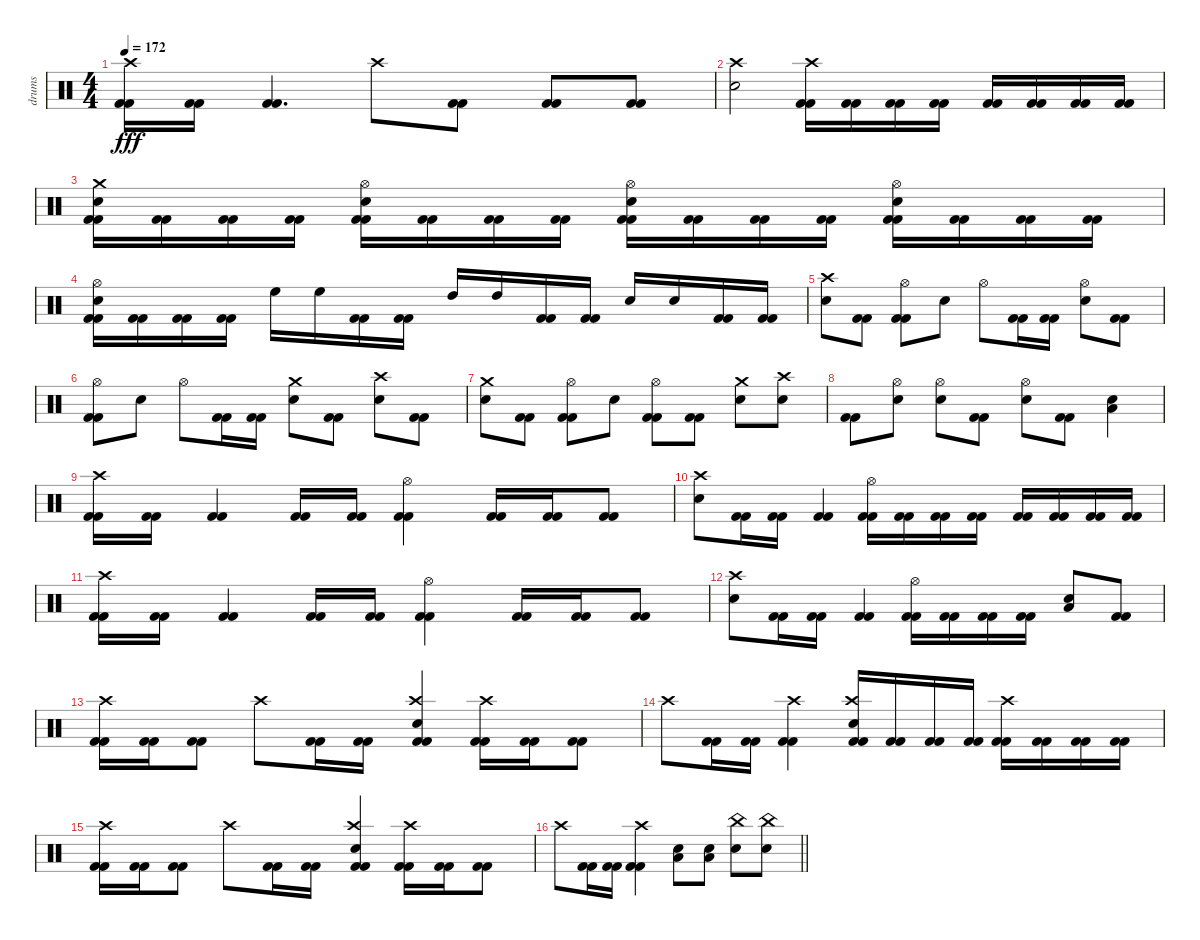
\track ("drums" "drums") {instrument percussion}
\staff {score}
\articulation defaults
\ts (4 4)
\tempo 172
\clef neutral
\ks c
("Kick (hit) 2" "Kick (hit) 2" "Crash high (hit)").16{dy fff} ("Kick (hit) 2" "Kick (hit) 2").16 ("Kick (hit) 2" "Kick (hit) 2").4{d} "Crash high (hit)".8 ("Kick (hit) 2" "Kick (hit) 2").8 ("Kick (hit) 2" "Kick (hit) 2").8 ("Kick (hit) 2" "Kick (hit) 2").8 |
("Electric Snare (hit)" "Crash high (hit)").2 ("Kick (hit) 2" "Kick (hit) 2" "Crash high (hit)").16 ("Kick (hit) 2" "Kick (hit) 2").16 ("Kick (hit) 2" "Kick (hit) 2").16 ("Kick (hit) 2" "Kick (hit) 2").16 ("Kick (hit) 2" "Kick (hit) 2").16 ("Kick (hit) 2" "Kick (hit) 2").16 ("Kick (hit) 2" "Kick (hit) 2").16 ("Kick (hit) 2" "Kick (hit) 2").16 |
("Kick (hit) 2" "Kick (hit) 2" "Electric Snare (hit)" "Crash medium (hit)").16 ("Kick (hit) 2" "Kick (hit) 2").16 ("Kick (hit) 2" "Kick (hit) 2").16 ("Kick (hit) 2" "Kick (hit) 2").16 ("Kick (hit) 2" "Kick (hit) 2" "Electric Snare (hit)" "Hi-Hat (open)").16 ("Kick (hit) 2" "Kick (hit) 2").16 ("Kick (hit) 2" "Kick (hit) 2").16 ("Kick (hit) 2" "Kick (hit) 2").16 ("Kick (hit) 2" "Kick (hit) 2" "Electric Snare (hit)" "Hi-Hat (open)").16 ("Kick (hit) 2" "Kick (hit) 2").16 ("Kick (hit) 2" "Kick (hit) 2").16 ("Kick (hit) 2" "Kick (hit) 2").16 ("Kick (hit) 2" "Kick (hit) 2" "Electric Snare (hit)" "Hi-Hat (open)").16 ("Kick (hit) 2" "Kick (hit) 2").16 ("Kick (hit) 2" "Kick (hit) 2").16 ("Kick (hit) 2" "Kick (hit) 2").16 |
("Kick (hit) 2" "Kick (hit) 2" "Electric Snare (hit)" "Hi-Hat (open)").16 ("Kick (hit) 2" "Kick (hit) 2").16 ("Kick (hit) 2" "Kick (hit) 2").16 ("Kick (hit) 2" "Kick (hit) 2").16 "High Floor Tom (hit)".16 "High Floor Tom (hit)".16 ("Kick (hit) 2" "Kick (hit) 2").16 ("Kick (hit) 2" "Kick (hit) 2").16 "High Tom (hit)".16 "High Tom (hit)".16 ("Kick (hit) 2" "Kick (hit) 2").16 ("Kick (hit) 2" "Kick (hit) 2").16 "Electric Snare (hit)".16 "Electric Snare (hit)".16 ("Kick (hit) 2" "Kick (hit) 2").16 ("Kick (hit) 2" "Kick (hit) 2").16 |
("Electric Snare (hit)" "Crash high (hit)").8 ("Kick (hit) 2" "Kick (hit) 2").8 ("Kick (hit) 2" "Kick (hit) 2" "Hi-Hat (open)").8 "Electric Snare (hit)".8 "Hi-Hat (open)".8 ("Kick (hit) 2" "Kick (hit) 2").16 ("Kick (hit) 2" "Kick (hit) 2").16 ("Electric Snare (hit)" "Hi-Hat (open)").8 ("Kick (hit) 2" "Kick (hit) 2").8 |
("Kick (hit) 2" "Kick (hit) 2" "Hi-Hat (open)").8 "Electric Snare (hit)".8 "Hi-Hat (open)".8 ("Kick (hit) 2" "Kick (hit) 2").16 ("Kick (hit) 2" "Kick (hit) 2").16 ("Electric Snare (hit)" "Crash medium (hit)").8 ("Kick (hit) 2" "Kick (hit) 2").8 ("Electric Snare (hit)" "Crash high (hit)").8 ("Kick (hit) 2" "Kick (hit) 2").8 |
("Electric Snare (hit)" "Crash medium (hit)").8 ("Kick (hit) 2" "Kick (hit) 2").8 ("Kick (hit) 2" "Kick (hit) 2" "Hi-Hat (open)").8 "Electric Snare (hit)".8 ("Kick (hit) 2" "Kick (hit) 2" "Hi-Hat (open)").8 ("Kick (hit) 2" "Kick (hit) 2").8 ("Electric Snare (hit)" "Crash medium (hit)").8 ("Electric Snare (hit)" "Crash high (hit)").8 |
("Kick (hit) 2" "Kick (hit) 2").8 ("Electric Snare (hit)" "Hi-Hat (open)").8 ("Electric Snare (hit)" "Hi-Hat (open)").8 ("Kick (hit) 2" "Kick (hit) 2").8 ("Electric Snare (hit)" "Hi-Hat (open)").8 ("Kick (hit) 2" "Kick (hit) 2").8 ("Low Floor Tom (hit)" "Electric Snare (hit)").4 |
("Kick (hit) 2" "Kick (hit) 2" "Crash high (hit)").16 ("Kick (hit) 2" "Kick (hit) 2").16 ("Kick (hit) 2" "Kick (hit) 2").4 ("Kick (hit) 2" "Kick (hit) 2").16 ("Kick (hit) 2" "Kick (hit) 2").16 ("Kick (hit) 2" "Kick (hit) 2" "Hi-Hat (open)").4 ("Kick (hit) 2" "Kick (hit) 2").16 ("Kick (hit) 2" "Kick (hit) 2").16 ("Kick (hit) 2" "Kick (hit) 2").8 |
("Electric Snare (hit)" "Crash high (hit)").8 ("Kick (hit) 2" "Kick (hit) 2").16 ("Kick (hit) 2" "Kick (hit) 2").16 ("Kick (hit) 2" "Kick (hit) 2").4 ("Kick (hit) 2" "Kick (hit) 2" "Hi-Hat (open)").16 ("Kick (hit) 2" "Kick (hit) 2").16 ("Kick (hit) 2" "Kick (hit) 2").16 ("Kick (hit) 2" "Kick (hit) 2").16 ("Kick (hit) 2" "Kick (hit) 2").16 ("Kick (hit) 2" "Kick (hit) 2").16 ("Kick (hit) 2" "Kick (hit) 2").16 ("Kick (hit) 2" "Kick (hit) 2").16 |
("Kick (hit) 2" "Kick (hit) 2" "Crash high (hit)").16 ("Kick (hit) 2" "Kick (hit) 2").16 ("Kick (hit) 2" "Kick (hit) 2").4 ("Kick (hit) 2" "Kick (hit) 2").16 ("Kick (hit) 2" "Kick (hit) 2").16 ("Kick (hit) 2" "Kick (hit) 2" "Hi-Hat (open)").4 ("Kick (hit) 2" "Kick (hit) 2").16 ("Kick (hit) 2" "Kick (hit) 2").16 ("Kick (hit) 2" "Kick (hit) 2").8 |
("Electric Snare (hit)" "Crash high (hit)").8 ("Kick (hit) 2" "Kick (hit) 2").16 ("Kick (hit) 2" "Kick (hit) 2").16 ("Kick (hit) 2" "Kick (hit) 2").4 ("Kick (hit) 2" "Kick (hit) 2" "Hi-Hat (open)").16 ("Kick (hit) 2" "Kick (hit) 2").16 ("Kick (hit) 2" "Kick (hit) 2").16 ("Kick (hit) 2" "Kick (hit) 2").16 ("Electric Snare (hit)" "Low Floor Tom (hit)").8 ("Kick (hit) 2" "Kick (hit) 2").8 |
("Kick (hit) 2" "Kick (hit) 2" "Crash high (hit)").16 ("Kick (hit) 2" "Kick (hit) 2").16 ("Kick (hit) 2" "Kick (hit) 2").8 "Crash high (hit)".8 ("Kick (hit) 2" "Kick (hit) 2").16 ("Kick (hit) 2" "Kick (hit) 2").16 ("Kick (hit) 2" "Kick (hit) 2" "Electric Snare (hit)" "Crash high (hit)").4 ("Kick (hit) 2" "Kick (hit) 2" "Crash high (hit)").16 ("Kick (hit) 2" "Kick (hit) 2").16 ("Kick (hit) 2" "Kick (hit) 2").8 |
"Crash high (hit)".8 ("Kick (hit) 2" "Kick (hit) 2").16 ("Kick (hit) 2" "Kick (hit) 2").16 ("Kick (hit) 2" "Kick (hit) 2" "Crash high (hit)").4 ("Kick (hit) 2" "Kick (hit) 2" "Electric Snare (hit)" "Crash high (hit)").16 ("Kick (hit) 2" "Kick (hit) 2").16 ("Kick (hit) 2" "Kick (hit) 2").16 ("Kick (hit) 2" "Kick (hit) 2").16 ("Kick (hit) 2" "Kick (hit) 2" "Crash high (hit)").16 ("Kick (hit) 2" "Kick (hit) 2").16 ("Kick (hit) 2" "Kick (hit) 2").16 ("Kick (hit) 2" "Kick (hit) 2").16 |
("Kick (hit) 2" "Kick (hit) 2" "Crash high (hit)").16 ("Kick (hit) 2" "Kick (hit) 2").16 ("Kick (hit) 2" "Kick (hit) 2").8 "Crash high (hit)".8 ("Kick (hit) 2" "Kick (hit) 2").16 ("Kick (hit) 2" "Kick (hit) 2").16 ("Kick (hit) 2" "Kick (hit) 2" "Electric Snare (hit)" "Crash high (hit)").4 ("Kick (hit) 2" "Kick (hit) 2" "Crash high (hit)").16 ("Kick (hit) 2" "Kick (hit) 2").16 ("Kick (hit) 2" "Kick (hit) 2").8 |
\barLineRight lightlight "Crash high (hit)".8
("Kick (hit) 2" "Kick (hit) 2").16 ("Kick (hit) 2" "Kick (hit) 2").16 ("Kick (hit) 2" "Kick (hit) 2" "Crash high (hit)").4 ("Electric Snare (hit)" "Low Floor Tom (hit)").8 ("Electric Snare (hit)" "Low Floor Tom (hit)").8 ("Electric Snare (hit)" "China (hit)").8 ("Electric Snare (hit)" "China (hit)").8
